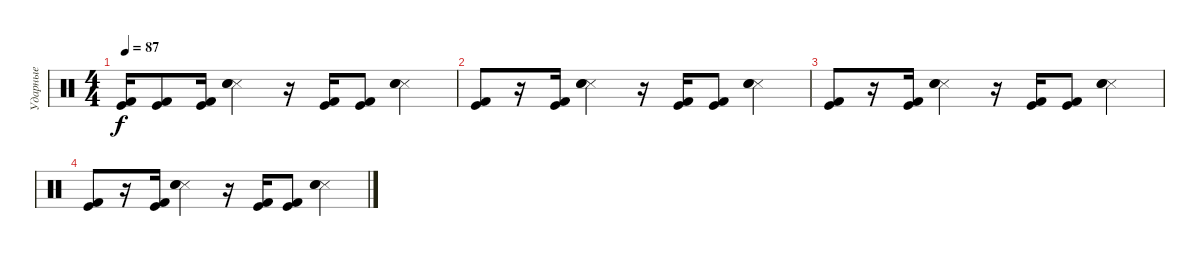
\track ("Ударные" "Ударные") {instrument percussion}
\staff {score}
\articulation defaults
\ts (4 4)
\tempo 87
\clef neutral
\ks c
("Kick (hit) 2" "Kick (hit)").16{dy f} ("Kick (hit) 2" "Kick (hit)").8 ("Kick (hit) 2" "Kick (hit)").16 ("Snare (side stick) 3" "Electric Snare (hit)" "Electric Snare (hit)").4 r.16 ("Kick (hit)" "Kick (hit) 2").16 ("Kick (hit)" "Kick (hit) 2").8 ("Snare (side stick) 3" "Electric Snare (hit)" "Electric Snare (hit)").4 |
("Kick (hit) 2" "Kick (hit)").8 r.16 ("Kick (hit) 2" "Kick (hit)").16 ("Snare (side stick) 3" "Electric Snare (hit)" "Electric Snare (hit)").4 r.16 ("Kick (hit)" "Kick (hit) 2").16 ("Kick (hit)" "Kick (hit) 2").8 ("Snare (side stick) 3" "Electric Snare (hit)" "Electric Snare (hit)").4 |
("Kick (hit) 2" "Kick (hit)").8 r.16 ("Kick (hit) 2" "Kick (hit)").16 ("Snare (side stick) 3" "Electric Snare (hit)" "Electric Snare (hit)").4 r.16 ("Kick (hit)" "Kick (hit) 2").16 ("Kick (hit)" "Kick (hit) 2").8 ("Snare (side stick) 3" "Electric Snare (hit)" "Electric Snare (hit)").4 |
("Kick (hit) 2" "Kick (hit)").8 r.16 ("Kick (hit) 2" "Kick (hit)").16 ("Snare (side stick) 3" "Electric Snare (hit)" "Electric Snare (hit)").4 r.16 ("Kick (hit)" "Kick (hit) 2").16 ("Kick (hit)" "Kick (hit) 2").8 ("Snare (side stick) 3" "Electric Snare (hit)" "Electric Snare (hit)").4
